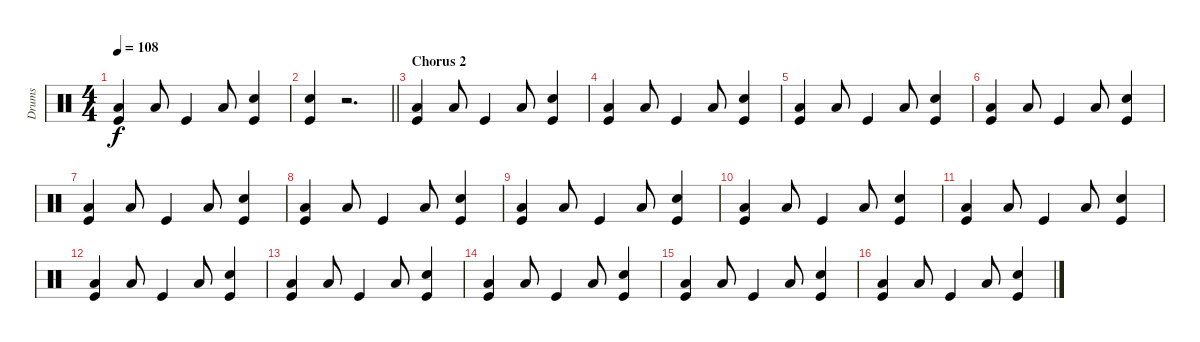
\track ("Drums" "Drums") {instrument percussion}
\staff {score}
\articulation defaults
\ts (4 4)
\tempo 108
\clef neutral
\ks c
("Low Floor Tom (hit)" "Kick (hit)").4{dy f} "Low Floor Tom (hit)".8 "Kick (hit)".4 "Low Floor Tom (hit)".8 ("Snare (hit) 2" "Kick (hit)").4 |
\barLineRight lightlight
("Snare (hit) 2" "Kick (hit)").4 r.2{d} |
\section ("" "Chorus 2")
("Low Floor Tom (hit)" "Kick (hit)").4 "Low Floor Tom (hit)".8 "Kick (hit)".4 "Low Floor Tom (hit)".8 ("Snare (hit) 2" "Kick (hit)").4 |
("Low Floor Tom (hit)" "Kick (hit)").4 "Low Floor Tom (hit)".8 "Kick (hit)".4 "Low Floor Tom (hit)".8 ("Snare (hit) 2" "Kick (hit)").4 |
("Low Floor Tom (hit)" "Kick (hit)").4 "Low Floor Tom (hit)".8 "Kick (hit)".4 "Low Floor Tom (hit)".8 ("Snare (hit) 2" "Kick (hit)").4 |
("Low Floor Tom (hit)" "Kick (hit)").4 "Low Floor Tom (hit)".8 "Kick (hit)".4 "Low Floor Tom (hit)".8 ("Snare (hit) 2" "Kick (hit)").4 |
("Low Floor Tom (hit)" "Kick (hit)").4 "Low Floor Tom (hit)".8 "Kick (hit)".4 "Low Floor Tom (hit)".8 ("Snare (hit) 2" "Kick (hit)").4 |
("Low Floor Tom (hit)" "Kick (hit)").4 "Low Floor Tom (hit)".8 "Kick (hit)".4 "Low Floor Tom (hit)".8 ("Snare (hit) 2" "Kick (hit)").4 |
("Low Floor Tom (hit)" "Kick (hit)").4 "Low Floor Tom (hit)".8 "Kick (hit)".4 "Low Floor Tom (hit)".8 ("Snare (hit) 2" "Kick (hit)").4 |
("Low Floor Tom (hit)" "Kick (hit)").4 "Low Floor Tom (hit)".8 "Kick (hit)".4 "Low Floor Tom (hit)".8 ("Snare (hit) 2" "Kick (hit)").4 |
("Low Floor Tom (hit)" "Kick (hit)").4 "Low Floor Tom (hit)".8 "Kick (hit)".4 "Low Floor Tom (hit)".8 ("Snare (hit) 2" "Kick (hit)").4 |
("Low Floor Tom (hit)" "Kick (hit)").4 "Low Floor Tom (hit)".8 "Kick (hit)".4 "Low Floor Tom (hit)".8 ("Snare (hit) 2" "Kick (hit)").4 |
("Low Floor Tom (hit)" "Kick (hit)").4 "Low Floor Tom (hit)".8 "Kick (hit)".4 "Low Floor Tom (hit)".8 ("Snare (hit) 2" "Kick (hit)").4 |
("Low Floor Tom (hit)" "Kick (hit)").4 "Low Floor Tom (hit)".8 "Kick (hit)".4 "Low Floor Tom (hit)".8 ("Snare (hit) 2" "Kick (hit)").4 |
("Low Floor Tom (hit)" "Kick (hit)").4 "Low Floor Tom (hit)".8 "Kick (hit)".4 "Low Floor Tom (hit)".8 ("Snare (hit) 2" "Kick (hit)").4 |
("Low Floor Tom (hit)" "Kick (hit)").4 "Low Floor Tom (hit)".8 "Kick (hit)".4 "Low Floor Tom (hit)".8 ("Snare (hit) 2" "Kick (hit)").4
